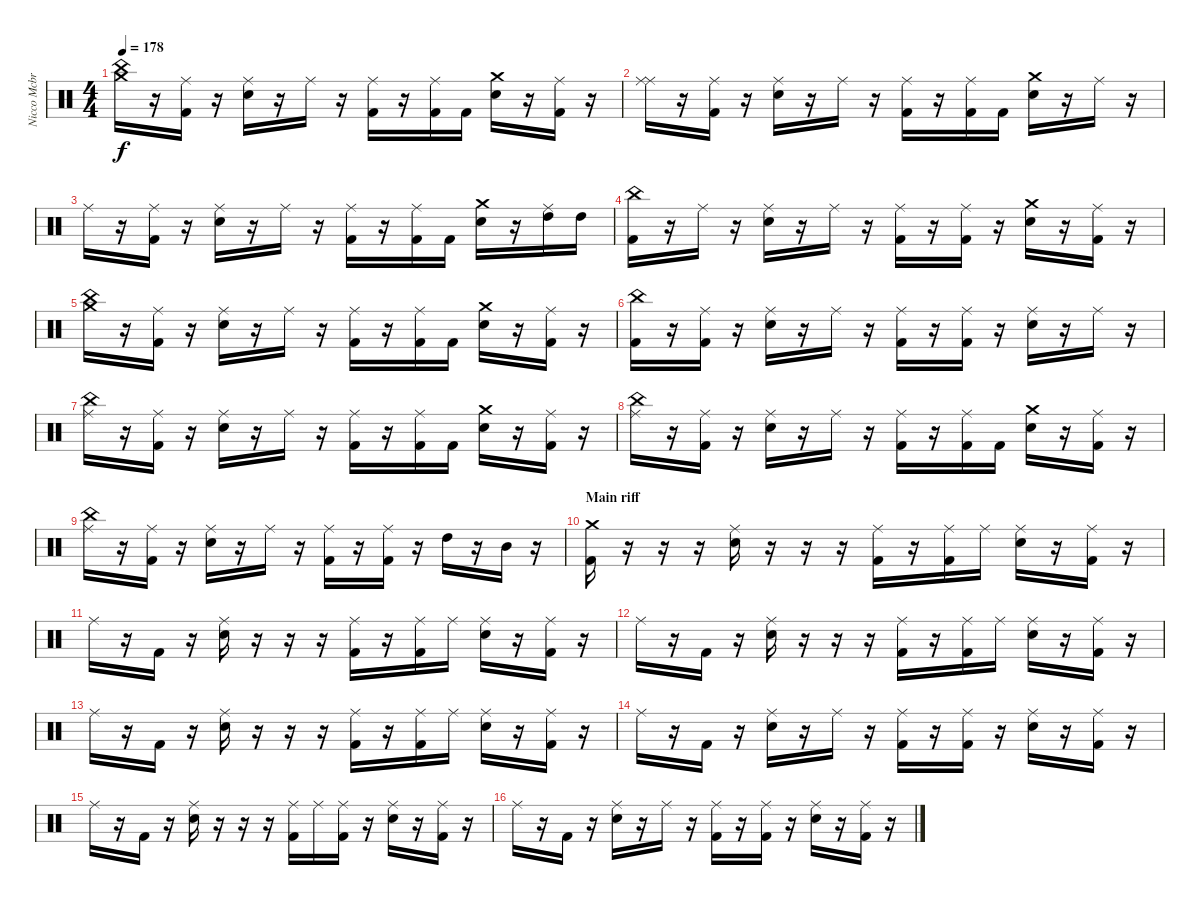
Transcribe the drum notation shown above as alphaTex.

\track ("Nicco Mcbrian - Drums" "Nicco Mcbr") {instrument percussion}
\staff {score}
\articulation defaults
\ts (4 4)
\tempo 178
\clef neutral
\ks c
("Crash medium (hit)" "China (hit)").16{dy f} r.16 ("Ride (middle)" "Kick (hit) 2").16 r.16 ("Ride (middle)" "Snare (hit) 2").16 r.16 "Ride (middle)".16 r.16 ("Ride (middle)" "Kick (hit) 2").16 r.16 ("Ride (middle)" "Kick (hit) 2").16 "Kick (hit) 2".16 ("Crash medium (hit)" "Snare (hit) 2").16 r.16 ("Ride (middle)" "Kick (hit) 2").16 r.16 |
("Ride (middle)" "Ride (middle)").16 r.16 ("Ride (middle)" "Kick (hit) 2").16 r.16 ("Ride (middle)" "Snare (hit) 2").16 r.16 "Ride (middle)".16 r.16 ("Ride (middle)" "Kick (hit) 2").16 r.16 ("Ride (middle)" "Kick (hit) 2").16 "Kick (hit) 2".16 ("Crash medium (hit)" "Snare (hit) 2").16 r.16 "Ride (middle)".16 r.16 |
"Ride (middle)".16 r.16 ("Ride (middle)" "Kick (hit) 2").16 r.16 ("Ride (middle)" "Snare (hit) 2").16 r.16 "Ride (middle)".16 r.16 ("Ride (middle)" "Kick (hit) 2").16 r.16 ("Ride (middle)" "Kick (hit) 2").16 "Kick (hit) 2".16 ("Crash medium (hit)" "Snare (hit) 2").16 r.16 ("Ride (middle)" "High Tom (hit)").16 "High Tom (hit)".16 |
("China (hit)" "Kick (hit) 2").16 r.16 "Ride (middle)".16 r.16 ("Ride (middle)" "Snare (hit) 2").16 r.16 "Ride (middle)".16 r.16 ("Ride (middle)" "Kick (hit) 2").16 r.16 ("Ride (middle)" "Kick (hit) 2").16 r.16 ("Crash medium (hit)" "Snare (hit) 2").16 r.16 ("Ride (middle)" "Kick (hit) 2").16 r.16 |
("Crash medium (hit)" "China (hit)").16 r.16 ("Ride (middle)" "Kick (hit) 2").16 r.16 ("Ride (middle)" "Snare (hit) 2").16 r.16 "Ride (middle)".16 r.16 ("Ride (middle)" "Kick (hit) 2").16 r.16 ("Ride (middle)" "Kick (hit) 2").16 "Kick (hit) 2".16 ("Crash medium (hit)" "Snare (hit) 2").16 r.16 ("Ride (middle)" "Kick (hit) 2").16 r.16 |
("China (hit)" "Kick (hit) 2").16 r.16 ("Ride (middle)" "Kick (hit) 2").16 r.16 ("Ride (middle)" "Snare (hit) 2").16 r.16 "Ride (middle)".16 r.16 ("Ride (middle)" "Kick (hit) 2").16 r.16 ("Ride (middle)" "Kick (hit) 2").16 r.16 ("Ride (middle)" "Snare (hit) 2").16 r.16 "Ride (middle)".16 r.16 |
("Ride (middle)" "China (hit)").16 r.16 ("Ride (middle)" "Kick (hit) 2").16 r.16 ("Ride (middle)" "Snare (hit) 2").16 r.16 "Ride (middle)".16 r.16 ("Ride (middle)" "Kick (hit) 2").16 r.16 ("Ride (middle)" "Kick (hit) 2").16 "Kick (hit) 2".16 ("Crash medium (hit)" "Snare (hit) 2").16 r.16 ("Ride (middle)" "Kick (hit) 2").16 r.16 |
("Ride (middle)" "China (hit)").16 r.16 ("Ride (middle)" "Kick (hit) 2").16 r.16 ("Ride (middle)" "Snare (hit) 2").16 r.16 "Ride (middle)".16 r.16 ("Ride (middle)" "Kick (hit) 2").16 r.16 ("Ride (middle)" "Kick (hit) 2").16 "Kick (hit) 2".16 ("Crash medium (hit)" "Snare (hit) 2").16 r.16 ("Ride (middle)" "Kick (hit) 2").16 r.16 |
("Ride (middle)" "China (hit)").16 r.16 ("Ride (middle)" "Kick (hit) 2").16 r.16 ("Ride (middle)" "Snare (hit) 2").16 r.16 "Ride (middle)".16 r.16 ("Ride (middle)" "Kick (hit) 2").16 r.16 ("Ride (middle)" "Kick (hit) 2").16 r.16 "High Tom (hit)".16 r.16 "Mid Tom (hit)".16 r.16 |
\section ("" "Main riff")
("Crash medium (hit)" "Kick (hit) 2").16 r.16 r.16 r.16 ("Ride (middle)" "Snare (hit) 2").16 r.16 r.16 r.16 ("Ride (middle)" "Kick (hit) 2").16 r.16 ("Ride (middle)" "Kick (hit) 2").16 "Ride (middle)".16 ("Ride (middle)" "Snare (hit) 2").16 r.16 ("Ride (middle)" "Kick (hit) 2").16 r.16 |
"Ride (middle)".16 r.16 "Kick (hit) 2".16 r.16 ("Ride (middle)" "Snare (hit) 2").16 r.16 r.16 r.16 ("Ride (middle)" "Kick (hit) 2").16 r.16 ("Ride (middle)" "Kick (hit) 2").16 "Ride (middle)".16 ("Ride (middle)" "Snare (hit) 2").16 r.16 ("Ride (middle)" "Kick (hit) 2").16 r.16 |
"Ride (middle)".16 r.16 "Kick (hit) 2".16 r.16 ("Ride (middle)" "Snare (hit) 2").16 r.16 r.16 r.16 ("Ride (middle)" "Kick (hit) 2").16 r.16 ("Ride (middle)" "Kick (hit) 2").16 "Ride (middle)".16 ("Ride (middle)" "Snare (hit) 2").16 r.16 ("Ride (middle)" "Kick (hit) 2").16 r.16 |
"Ride (middle)".16 r.16 "Kick (hit) 2".16 r.16 ("Ride (middle)" "Snare (hit) 2").16 r.16 r.16 r.16 ("Ride (middle)" "Kick (hit) 2").16 r.16 ("Ride (middle)" "Kick (hit) 2").16 "Ride (middle)".16 ("Ride (middle)" "Snare (hit) 2").16 r.16 ("Ride (middle)" "Kick (hit) 2").16 r.16 |
"Ride (middle)".16 r.16 "Kick (hit) 2".16 r.16 ("Ride (middle)" "Snare (hit) 2").16 r.16 "Ride (middle)".16 r.16 ("Ride (middle)" "Kick (hit) 2").16 r.16 ("Ride (middle)" "Kick (hit) 2").16 r.16 ("Ride (middle)" "Snare (hit) 2").16 r.16 ("Ride (middle)" "Kick (hit) 2").16 r.16 |
"Ride (middle)".16 r.16 "Kick (hit) 2".16 r.16 ("Ride (middle)" "Snare (hit) 2").16 r.16 r.16 r.16 ("Ride (middle)" "Kick (hit) 2").16 "Ride (middle)".16 ("Ride (middle)" "Kick (hit) 2").16 r.16 ("Ride (middle)" "Snare (hit) 2").16 r.16 ("Ride (middle)" "Kick (hit) 2").16 r.16 |
"Ride (middle)".16 r.16 "Kick (hit) 2".16 r.16 ("Ride (middle)" "Snare (hit) 2").16 r.16 "Ride (middle)".16 r.16 ("Ride (middle)" "Kick (hit) 2").16 r.16 ("Ride (middle)" "Kick (hit) 2").16 r.16 ("Ride (middle)" "Snare (hit) 2").16 r.16 ("Ride (middle)" "Kick (hit) 2").16 r.16
